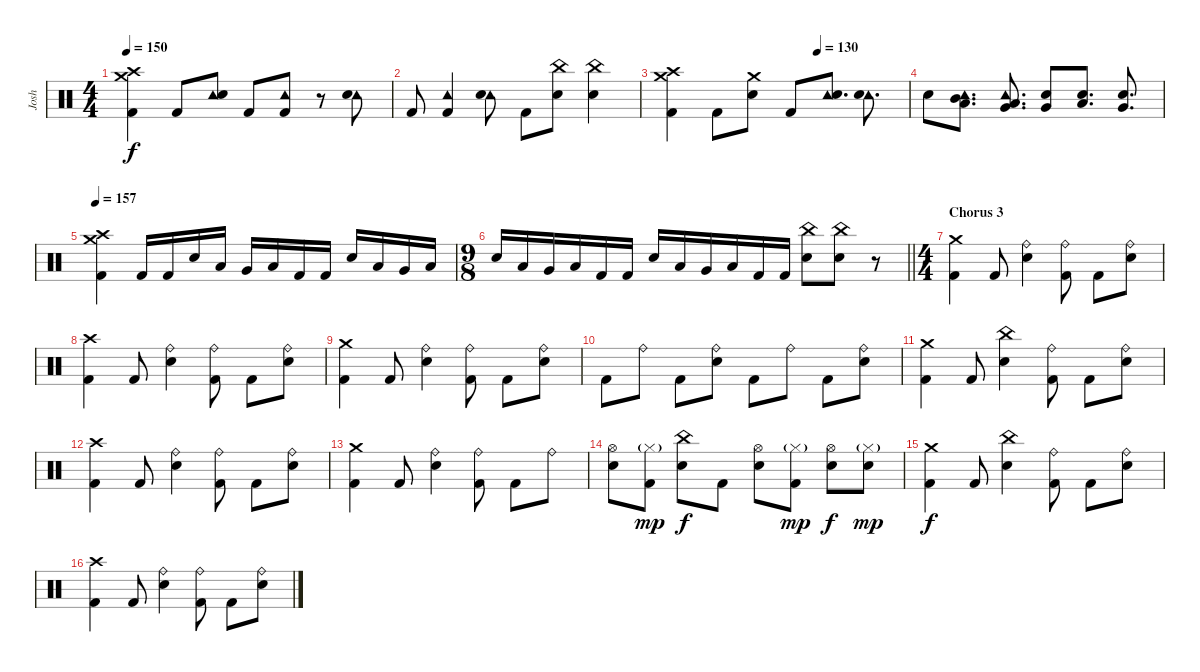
\track ("Josh" "Josh") {instrument percussion}
\staff {score}
\articulation defaults
\ts (4 4)
\tempo 150
\clef neutral
\ks c
("Crash high (hit)" "Crash medium (hit)" "Kick (hit) 2").4{dy f} "Kick (hit) 2".8 ("Tambourine (hit)" "Electric Snare (hit)").8 "Kick (hit) 2".8 ("Tambourine (hit)" "Kick (hit) 2").8 r.8 ("Tambourine (hit)" "Electric Snare (hit)").8 |
"Kick (hit) 2".8 ("Tambourine (hit)" "Kick (hit) 2").4 ("Tambourine (hit)" "Electric Snare (hit)").8 "Kick (hit) 2".8 ("China (hit)" "Electric Snare (hit)").8 ("China (hit)" "Electric Snare (hit)").4 |
\tempo (130 0.625)
("Crash high (hit)" "Crash medium (hit)" "Kick (hit) 2").4 "Kick (hit) 2".8 ("Crash medium (hit)" "Electric Snare (hit)").8 "Kick (hit) 2".8 ("Tambourine (hit)" "Electric Snare (hit)").8{d} ("Tambourine (hit)" "Electric Snare (hit)").8{d} |
"Electric Snare (hit)".8 ("Tambourine (hit)" "Mid Tom (hit)" "Low Tom (hit)").8{d} ("Tambourine (hit)" "Low Tom (hit)" "Very Low Tom (hit)").8{d} ("Very Low Tom (hit)" "Electric Snare (hit)").8 ("Low Tom (hit)" "Electric Snare (hit)").8{d} ("Very Low Tom (hit)" "Electric Snare (hit)").8{d} |
\tempo 157
("Crash medium (hit)" "Crash high (hit)" "Kick (hit) 2").4 "Kick (hit) 2".16 "Kick (hit) 2".16 "Electric Snare (hit)".16 "Low Tom (hit)".16 "Very Low Tom (hit)".16 "Low Floor Tom (hit)".16 "Kick (hit) 2".16 "Kick (hit) 2".16 "Electric Snare (hit)".16 "Low Tom (hit)".16 "Very Low Tom (hit)".16 "Low Floor Tom (hit)".16 |
\ts (9 8)
\barLineRight lightlight "Electric Snare (hit)".16 "Low Tom (hit)".16 "Very Low Tom (hit)".16 "Low Floor Tom (hit)".16 "Kick (hit) 2".16 "Kick (hit) 2".16 "Electric Snare (hit)".16 "Low Tom (hit)".16 "Very Low Tom (hit)".16 "Low Floor Tom (hit)".16 "Kick (hit) 2".16 "Kick (hit) 2".16
("China (hit)" "Electric Snare (hit)").8 ("China (hit)" "Electric Snare (hit)").8 r.8 |
\ts (4 4)
\section ("" "Chorus 3")
("Crash medium (hit)" "Kick (hit) 2").4 "Kick (hit) 2".8 ("Ride (bell)" "Electric Snare (hit)").4 ("Ride (bell)" "Kick (hit) 2").8 "Kick (hit) 2".8 ("Ride (bell)" "Electric Snare (hit)").8 |
("Crash high (hit)" "Kick (hit) 2").4 "Kick (hit) 2".8 ("Ride (bell)" "Electric Snare (hit)").4 ("Ride (bell)" "Kick (hit) 2").8 "Kick (hit) 2".8 ("Ride (bell)" "Electric Snare (hit)").8 |
("Crash medium (hit)" "Kick (hit) 2").4 "Kick (hit) 2".8 ("Ride (bell)" "Electric Snare (hit)").4 ("Ride (bell)" "Kick (hit) 2").8 "Kick (hit) 2".8 ("Ride (bell)" "Electric Snare (hit)").8 |
"Kick (hit) 2".8 "Ride (bell)".8 "Kick (hit) 2".8 ("Ride (bell)" "Electric Snare (hit)").8 "Kick (hit) 2".8 "Ride (bell)".8 "Kick (hit) 2".8 ("Ride (bell)" "Electric Snare (hit)").8 |
("Crash medium (hit)" "Kick (hit) 2").4 "Kick (hit) 2".8 ("China (hit)" "Electric Snare (hit)").4 ("Ride (bell)" "Kick (hit) 2").8 "Kick (hit) 2".8 ("Ride (bell)" "Electric Snare (hit)").8 |
("Crash high (hit)" "Kick (hit) 2").4 "Kick (hit) 2".8 ("Ride (bell)" "Electric Snare (hit)").4 ("Ride (bell)" "Kick (hit) 2").8 "Kick (hit) 2".8 ("Ride (bell)" "Electric Snare (hit)").8 |
("Crash medium (hit)" "Kick (hit) 2").4 "Kick (hit) 2".8 ("Ride (bell)" "Electric Snare (hit)").4 ("Ride (bell)" "Kick (hit) 2").8 "Kick (hit) 2".8 "Ride (bell)".8 |
("Hi-Hat (open)" "Electric Snare (hit)").8 ("Hi-Hat (closed)"{g} "Kick (hit) 2").8{dy mp} ("China (hit)" "Electric Snare (hit)").8{dy f} "Kick (hit) 2".8 ("Hi-Hat (open)" "Electric Snare (hit)").8 ("Hi-Hat (closed)"{g} "Kick (hit) 2").8{dy mp} ("Hi-Hat (open)" "Electric Snare (hit)").8{dy f} ("Hi-Hat (closed)"{g} "Electric Snare (hit)").8{dy mp} |
("Crash medium (hit)" "Kick (hit) 2").4{dy f} "Kick (hit) 2".8 ("China (hit)" "Electric Snare (hit)").4 ("Ride (bell)" "Kick (hit) 2").8 "Kick (hit) 2".8 ("Ride (bell)" "Electric Snare (hit)").8 |
("Crash high (hit)" "Kick (hit) 2").4 "Kick (hit) 2".8 ("Ride (bell)" "Electric Snare (hit)").4 ("Ride (bell)" "Kick (hit) 2").8 "Kick (hit) 2".8 ("Ride (bell)" "Electric Snare (hit)").8
